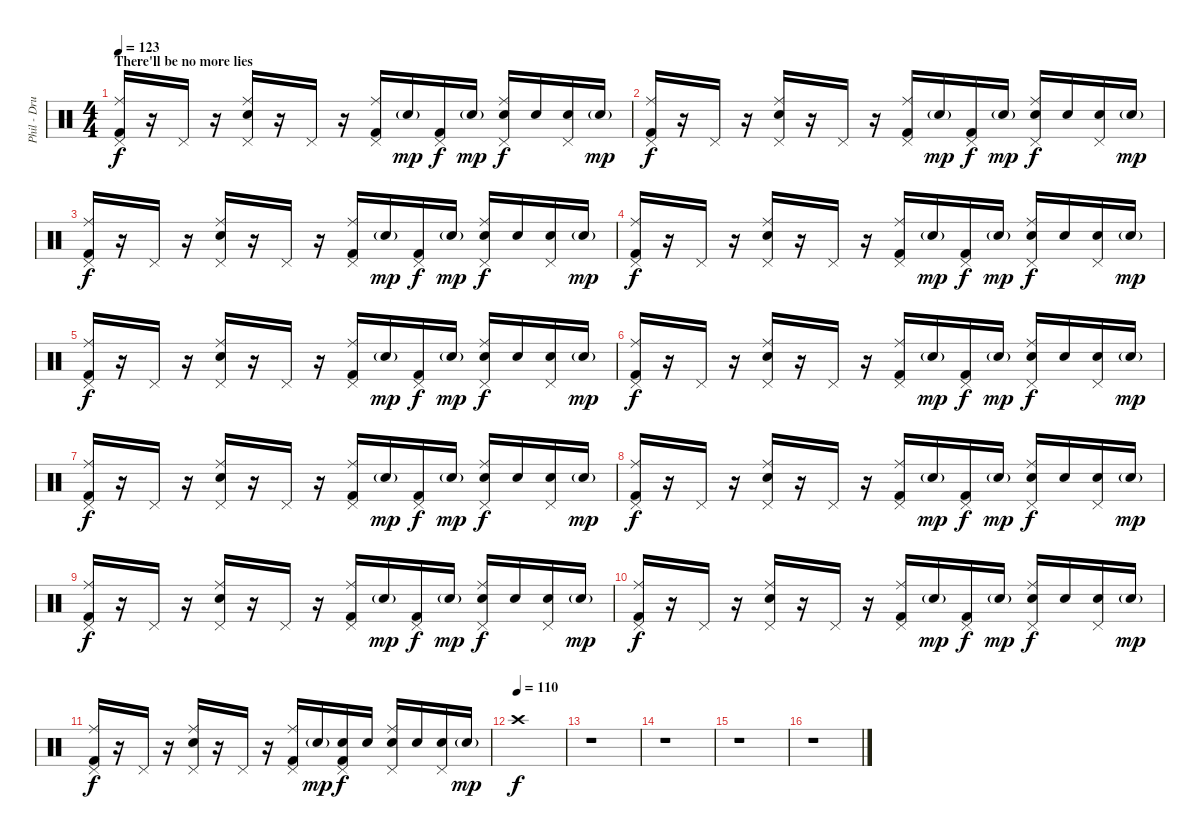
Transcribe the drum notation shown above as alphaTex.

\track ("Phil - Drums" "Phil - Dru") {instrument percussion}
\staff {score}
\articulation defaults
\ts (4 4)
\section ("" "There'll be no more lies")
\tempo 123
\clef neutral
\ks c
("Ride (middle)" "Kick (hit) 2" "Pedal Hi-Hat (hit)").16{dy f} r.16 "Pedal Hi-Hat (hit)".16 r.16 ("Ride (middle)" "Snare (hit) 2" "Pedal Hi-Hat (hit)").16 r.16 "Pedal Hi-Hat (hit)".16 r.16 ("Ride (middle)" "Kick (hit) 2" "Pedal Hi-Hat (hit)").16 "Snare (hit) 2"{g}.16{dy mp} ("Kick (hit) 2" "Pedal Hi-Hat (hit)").16{dy f} "Snare (hit) 2"{g}.16{dy mp} ("Ride (middle)" "Snare (hit) 2" "Pedal Hi-Hat (hit)").16{dy f} "Snare (hit) 2".16 ("Snare (hit) 2" "Pedal Hi-Hat (hit)").16 "Snare (hit) 2"{g}.16{dy mp} |
("Ride (middle)" "Kick (hit) 2" "Pedal Hi-Hat (hit)").16{dy f} r.16 "Pedal Hi-Hat (hit)".16 r.16 ("Ride (middle)" "Snare (hit) 2" "Pedal Hi-Hat (hit)").16 r.16 "Pedal Hi-Hat (hit)".16 r.16 ("Ride (middle)" "Kick (hit) 2" "Pedal Hi-Hat (hit)").16 "Snare (hit) 2"{g}.16{dy mp} ("Kick (hit) 2" "Pedal Hi-Hat (hit)").16{dy f} "Snare (hit) 2"{g}.16{dy mp} ("Ride (middle)" "Snare (hit) 2" "Pedal Hi-Hat (hit)").16{dy f} "Snare (hit) 2".16 ("Snare (hit) 2" "Pedal Hi-Hat (hit)").16 "Snare (hit) 2"{g}.16{dy mp} |
("Ride (middle)" "Kick (hit) 2" "Pedal Hi-Hat (hit)").16{dy f} r.16 "Pedal Hi-Hat (hit)".16 r.16 ("Ride (middle)" "Snare (hit) 2" "Pedal Hi-Hat (hit)").16 r.16 "Pedal Hi-Hat (hit)".16 r.16 ("Ride (middle)" "Kick (hit) 2" "Pedal Hi-Hat (hit)").16 "Snare (hit) 2"{g}.16{dy mp} ("Kick (hit) 2" "Pedal Hi-Hat (hit)").16{dy f} "Snare (hit) 2"{g}.16{dy mp} ("Ride (middle)" "Snare (hit) 2" "Pedal Hi-Hat (hit)").16{dy f} "Snare (hit) 2".16 ("Snare (hit) 2" "Pedal Hi-Hat (hit)").16 "Snare (hit) 2"{g}.16{dy mp} |
("Ride (middle)" "Kick (hit) 2" "Pedal Hi-Hat (hit)").16{dy f} r.16 "Pedal Hi-Hat (hit)".16 r.16 ("Ride (middle)" "Snare (hit) 2" "Pedal Hi-Hat (hit)").16 r.16 "Pedal Hi-Hat (hit)".16 r.16 ("Ride (middle)" "Kick (hit) 2" "Pedal Hi-Hat (hit)").16 "Snare (hit) 2"{g}.16{dy mp} ("Kick (hit) 2" "Pedal Hi-Hat (hit)").16{dy f} "Snare (hit) 2"{g}.16{dy mp} ("Ride (middle)" "Snare (hit) 2" "Pedal Hi-Hat (hit)").16{dy f} "Snare (hit) 2".16 ("Snare (hit) 2" "Pedal Hi-Hat (hit)").16 "Snare (hit) 2"{g}.16{dy mp} |
("Ride (middle)" "Kick (hit) 2" "Pedal Hi-Hat (hit)").16{dy f} r.16 "Pedal Hi-Hat (hit)".16 r.16 ("Ride (middle)" "Snare (hit) 2" "Pedal Hi-Hat (hit)").16 r.16 "Pedal Hi-Hat (hit)".16 r.16 ("Ride (middle)" "Kick (hit) 2" "Pedal Hi-Hat (hit)").16 "Snare (hit) 2"{g}.16{dy mp} ("Kick (hit) 2" "Pedal Hi-Hat (hit)").16{dy f} "Snare (hit) 2"{g}.16{dy mp} ("Ride (middle)" "Snare (hit) 2" "Pedal Hi-Hat (hit)").16{dy f} "Snare (hit) 2".16 ("Snare (hit) 2" "Pedal Hi-Hat (hit)").16 "Snare (hit) 2"{g}.16{dy mp} |
("Ride (middle)" "Kick (hit) 2" "Pedal Hi-Hat (hit)").16{dy f} r.16 "Pedal Hi-Hat (hit)".16 r.16 ("Ride (middle)" "Snare (hit) 2" "Pedal Hi-Hat (hit)").16 r.16 "Pedal Hi-Hat (hit)".16 r.16 ("Ride (middle)" "Kick (hit) 2" "Pedal Hi-Hat (hit)").16 "Snare (hit) 2"{g}.16{dy mp} ("Kick (hit) 2" "Pedal Hi-Hat (hit)").16{dy f} "Snare (hit) 2"{g}.16{dy mp} ("Ride (middle)" "Snare (hit) 2" "Pedal Hi-Hat (hit)").16{dy f} "Snare (hit) 2".16 ("Snare (hit) 2" "Pedal Hi-Hat (hit)").16 "Snare (hit) 2"{g}.16{dy mp} |
("Ride (middle)" "Kick (hit) 2" "Pedal Hi-Hat (hit)").16{dy f} r.16 "Pedal Hi-Hat (hit)".16 r.16 ("Ride (middle)" "Snare (hit) 2" "Pedal Hi-Hat (hit)").16 r.16 "Pedal Hi-Hat (hit)".16 r.16 ("Ride (middle)" "Kick (hit) 2" "Pedal Hi-Hat (hit)").16 "Snare (hit) 2"{g}.16{dy mp} ("Kick (hit) 2" "Pedal Hi-Hat (hit)").16{dy f} "Snare (hit) 2"{g}.16{dy mp} ("Ride (middle)" "Snare (hit) 2" "Pedal Hi-Hat (hit)").16{dy f} "Snare (hit) 2".16 ("Snare (hit) 2" "Pedal Hi-Hat (hit)").16 "Snare (hit) 2"{g}.16{dy mp} |
("Ride (middle)" "Kick (hit) 2" "Pedal Hi-Hat (hit)").16{dy f} r.16 "Pedal Hi-Hat (hit)".16 r.16 ("Ride (middle)" "Snare (hit) 2" "Pedal Hi-Hat (hit)").16 r.16 "Pedal Hi-Hat (hit)".16 r.16 ("Ride (middle)" "Kick (hit) 2" "Pedal Hi-Hat (hit)").16 "Snare (hit) 2"{g}.16{dy mp} ("Kick (hit) 2" "Pedal Hi-Hat (hit)").16{dy f} "Snare (hit) 2"{g}.16{dy mp} ("Ride (middle)" "Snare (hit) 2" "Pedal Hi-Hat (hit)").16{dy f} "Snare (hit) 2".16 ("Snare (hit) 2" "Pedal Hi-Hat (hit)").16 "Snare (hit) 2"{g}.16{dy mp} |
("Ride (middle)" "Kick (hit) 2" "Pedal Hi-Hat (hit)").16{dy f} r.16 "Pedal Hi-Hat (hit)".16 r.16 ("Ride (middle)" "Snare (hit) 2" "Pedal Hi-Hat (hit)").16 r.16 "Pedal Hi-Hat (hit)".16 r.16 ("Ride (middle)" "Kick (hit) 2" "Pedal Hi-Hat (hit)").16 "Snare (hit) 2"{g}.16{dy mp} ("Kick (hit) 2" "Pedal Hi-Hat (hit)").16{dy f} "Snare (hit) 2"{g}.16{dy mp} ("Ride (middle)" "Snare (hit) 2" "Pedal Hi-Hat (hit)").16{dy f} "Snare (hit) 2".16 ("Snare (hit) 2" "Pedal Hi-Hat (hit)").16 "Snare (hit) 2"{g}.16{dy mp} |
("Ride (middle)" "Kick (hit) 2" "Pedal Hi-Hat (hit)").16{dy f} r.16 "Pedal Hi-Hat (hit)".16 r.16 ("Ride (middle)" "Snare (hit) 2" "Pedal Hi-Hat (hit)").16 r.16 "Pedal Hi-Hat (hit)".16 r.16 ("Ride (middle)" "Kick (hit) 2" "Pedal Hi-Hat (hit)").16 "Snare (hit) 2"{g}.16{dy mp} ("Kick (hit) 2" "Pedal Hi-Hat (hit)").16{dy f} "Snare (hit) 2"{g}.16{dy mp} ("Ride (middle)" "Snare (hit) 2" "Pedal Hi-Hat (hit)").16{dy f} "Snare (hit) 2".16 ("Snare (hit) 2" "Pedal Hi-Hat (hit)").16 "Snare (hit) 2"{g}.16{dy mp} |
("Ride (middle)" "Kick (hit) 2" "Pedal Hi-Hat (hit)").16{dy f} r.16 "Pedal Hi-Hat (hit)".16 r.16 ("Ride (middle)" "Snare (hit) 2" "Pedal Hi-Hat (hit)").16 r.16 "Pedal Hi-Hat (hit)".16 r.16 ("Ride (middle)" "Kick (hit) 2" "Pedal Hi-Hat (hit)").16 "Snare (hit) 2"{g}.16{dy mp} ("Electric Snare (hit)" "Kick (hit) 2" "Pedal Hi-Hat (hit)").16{dy f} "Electric Snare (hit)".16 ("Ride (middle)" "Electric Snare (hit)" "Pedal Hi-Hat (hit)").16 "Electric Snare (hit)".16 ("Electric Snare (hit)" "Pedal Hi-Hat (hit)").16 "Electric Snare (hit)"{g}.16{dy mp} |
\tempo (110)
"Crash high (hit)".1{dy f} |
r.1 |
r.1 |
r.1 |
r.1
